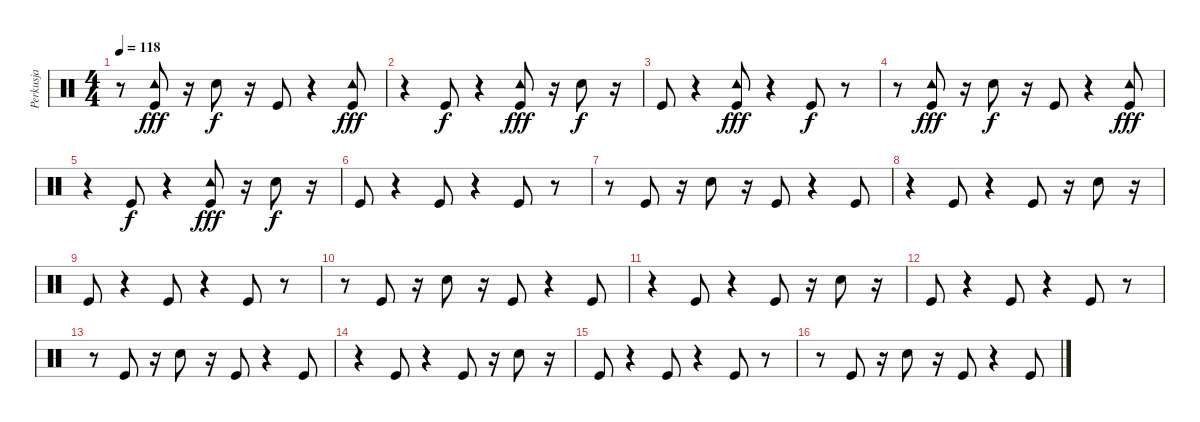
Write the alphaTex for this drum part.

\track ("Perkusja" "Perkusja") {instrument percussion}
\staff {score}
\articulation defaults
\ts (4 4)
\tempo 118
\clef neutral
\ks c
r.8{dy f} ("Kick (hit)" "Tambourine (hit)").8{dy fff} r.16 "Electric Snare (hit)".8{dy f} r.16 "Kick (hit)".8 r.4 ("Kick (hit)" "Tambourine (hit)").8{dy fff} |
r.4 "Kick (hit)".8{dy f} r.4 ("Kick (hit)" "Tambourine (hit)").8{dy fff} r.16 "Electric Snare (hit)".8{dy f} r.16 |
"Kick (hit)".8 r.4 ("Kick (hit)" "Tambourine (hit)").8{dy fff} r.4 "Kick (hit)".8{dy f} r.8 |
r.8 ("Kick (hit)" "Tambourine (hit)").8{dy fff} r.16 "Electric Snare (hit)".8{dy f} r.16 "Kick (hit)".8 r.4 ("Kick (hit)" "Tambourine (hit)").8{dy fff} |
r.4 "Kick (hit)".8{dy f} r.4 ("Kick (hit)" "Tambourine (hit)").8{dy fff} r.16 "Electric Snare (hit)".8{dy f} r.16 |
"Kick (hit)".8 r.4 "Kick (hit)".8 r.4 "Kick (hit)".8 r.8 |
r.8 "Kick (hit)".8 r.16 "Electric Snare (hit)".8 r.16 "Kick (hit)".8 r.4 "Kick (hit)".8 |
r.4 "Kick (hit)".8 r.4 "Kick (hit)".8 r.16 "Electric Snare (hit)".8 r.16 |
"Kick (hit)".8 r.4 "Kick (hit)".8 r.4 "Kick (hit)".8 r.8 |
r.8 "Kick (hit)".8 r.16 "Electric Snare (hit)".8 r.16 "Kick (hit)".8 r.4 "Kick (hit)".8 |
r.4 "Kick (hit)".8 r.4 "Kick (hit)".8 r.16 "Electric Snare (hit)".8 r.16 |
"Kick (hit)".8 r.4 "Kick (hit)".8 r.4 "Kick (hit)".8 r.8 |
r.8 "Kick (hit)".8 r.16 "Electric Snare (hit)".8 r.16 "Kick (hit)".8 r.4 "Kick (hit)".8 |
r.4 "Kick (hit)".8 r.4 "Kick (hit)".8 r.16 "Electric Snare (hit)".8 r.16 |
"Kick (hit)".8 r.4 "Kick (hit)".8{volume 0} r.4 "Kick (hit)".8 r.8 |
r.8 "Kick (hit)".8 r.16 "Electric Snare (hit)".8 r.16 "Kick (hit)".8 r.4 "Kick (hit)".8
